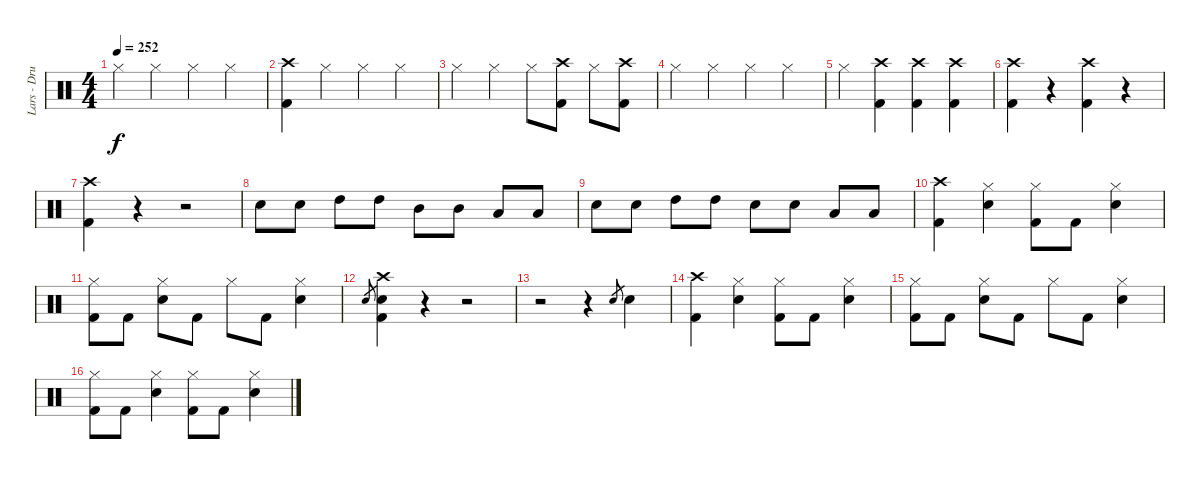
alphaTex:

\track ("Lars - Drums" "Lars - Dru") {instrument percussion}
\staff {score}
\articulation defaults
\ts (4 4)
\tempo 252
\clef neutral
\ks c "Hi-Hat (closed)".4{dy f} "Hi-Hat (closed)".4 "Hi-Hat (closed)".4 "Hi-Hat (closed)".4
|
("Crash high (hit)" "Kick (hit) 2").4 "Hi-Hat (closed)".4 "Hi-Hat (closed)".4 "Hi-Hat (closed)".4 |
"Hi-Hat (closed)".4 "Hi-Hat (closed)".4 "Hi-Hat (closed)".8 ("Crash high (hit)" "Kick (hit) 2").8 "Hi-Hat (closed)".8 ("Crash high (hit)" "Kick (hit) 2").8 |
"Hi-Hat (closed)".4 "Hi-Hat (closed)".4 "Hi-Hat (closed)".4 "Hi-Hat (closed)".4 |
"Hi-Hat (closed)".4 ("Crash high (hit)" "Kick (hit) 2").4 ("Crash high (hit)" "Kick (hit) 2").4 ("Crash high (hit)" "Kick (hit) 2").4 |
("Crash high (hit)" "Kick (hit) 2").4 r.4 ("Crash high (hit)" "Kick (hit) 2").4 r.4 |
("Crash high (hit)" "Kick (hit) 2").4 r.4 r.2 |
"Electric Snare (hit)".8 "Electric Snare (hit)".8 "High Tom (hit)".8 "High Tom (hit)".8 "Mid Tom (hit)".8 "Mid Tom (hit)".8 "Low Tom (hit)".8 "Low Tom (hit)".8 |
"Electric Snare (hit)".8 "Electric Snare (hit)".8 "High Tom (hit)".8 "High Tom (hit)".8 "Electric Snare (hit)".8 "Electric Snare (hit)".8 "Low Tom (hit)".8 "Low Tom (hit)".8 |
("Crash high (hit)" "Kick (hit) 2").4 ("Hi-Hat (closed)" "Electric Snare (hit)").4 ("Hi-Hat (closed)" "Kick (hit) 2").8 "Kick (hit) 2".8 ("Hi-Hat (closed)" "Electric Snare (hit)").4 |
("Hi-Hat (closed)" "Kick (hit) 2").8 "Kick (hit) 2".8 ("Hi-Hat (closed)" "Electric Snare (hit)").8 "Kick (hit) 2".8 "Hi-Hat (closed)".8 "Kick (hit) 2".8 ("Hi-Hat (closed)" "Electric Snare (hit)").4 |
"Electric Snare (hit)".8{gr} ("Crash high (hit)" "Electric Snare (hit)" "Kick (hit) 2").4 r.4 r.2 |
r.2 r.4 "Electric Snare (hit)"{sl}.8{gr} "Electric Snare (hit)".4 |
("Crash high (hit)" "Kick (hit) 2").4 ("Hi-Hat (closed)" "Electric Snare (hit)").4 ("Hi-Hat (closed)" "Kick (hit) 2").8 "Kick (hit) 2".8 ("Hi-Hat (closed)" "Electric Snare (hit)").4 |
("Hi-Hat (closed)" "Kick (hit) 2").8 "Kick (hit) 2".8 ("Hi-Hat (closed)" "Electric Snare (hit)").8 "Kick (hit) 2".8 "Hi-Hat (closed)".8 "Kick (hit) 2".8 ("Hi-Hat (closed)" "Electric Snare (hit)").4 |
("Hi-Hat (closed)" "Kick (hit) 2").8 "Kick (hit) 2".8 ("Hi-Hat (closed)" "Electric Snare (hit)").4 ("Hi-Hat (closed)" "Kick (hit) 2").8 "Kick (hit) 2".8 ("Hi-Hat (closed)" "Electric Snare (hit)").4
